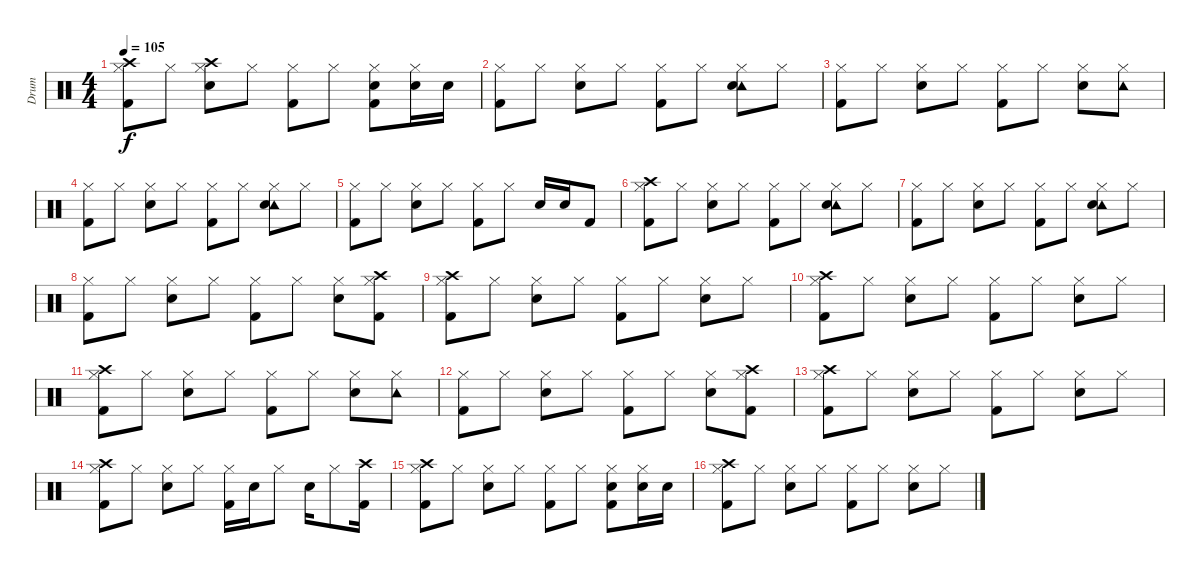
\track ("Drum" "Drum") {instrument percussion}
\staff {score}
\articulation defaults
\ts (4 4)
\tempo 105
\clef neutral
\ks c
("Crash high (hit)" "Hi-Hat (closed)" "Kick (hit) 2").8{dy f} "Hi-Hat (closed)".8 ("Crash high (hit)" "Electric Snare (hit)" "Hi-Hat (closed)").8 "Hi-Hat (closed)".8 ("Hi-Hat (closed)" "Kick (hit) 2").8 "Hi-Hat (closed)".8 ("Electric Snare (hit)" "Hi-Hat (closed)" "Kick (hit) 2").8 ("Electric Snare (hit)" "Hi-Hat (closed)").16 "Electric Snare (hit)".16 |
("Hi-Hat (closed)" "Kick (hit) 2").8 "Hi-Hat (closed)".8 ("Electric Snare (hit)" "Hi-Hat (closed)").8 "Hi-Hat (closed)".8 ("Hi-Hat (closed)" "Kick (hit) 2").8 "Hi-Hat (closed)".8 ("Tambourine (hit)" "Electric Snare (hit)" "Hi-Hat (closed)").8 "Hi-Hat (closed)".8 |
("Hi-Hat (closed)" "Kick (hit) 2").8 "Hi-Hat (closed)".8 ("Electric Snare (hit)" "Hi-Hat (closed)").8 "Hi-Hat (closed)".8 ("Hi-Hat (closed)" "Kick (hit) 2").8 "Hi-Hat (closed)".8 ("Electric Snare (hit)" "Hi-Hat (closed)").8 ("Tambourine (hit)" "Hi-Hat (closed)").8 |
("Hi-Hat (closed)" "Kick (hit) 2").8 "Hi-Hat (closed)".8 ("Electric Snare (hit)" "Hi-Hat (closed)").8 "Hi-Hat (closed)".8 ("Hi-Hat (closed)" "Kick (hit) 2").8 "Hi-Hat (closed)".8 ("Tambourine (hit)" "Electric Snare (hit)" "Hi-Hat (closed)").8 "Hi-Hat (closed)".8 |
("Hi-Hat (closed)" "Kick (hit) 2").8 "Hi-Hat (closed)".8 ("Electric Snare (hit)" "Hi-Hat (closed)").8 "Hi-Hat (closed)".8 ("Hi-Hat (closed)" "Kick (hit) 2").8 "Hi-Hat (closed)".8 "Electric Snare (hit)".16 "Electric Snare (hit)".16 "Kick (hit) 2".8 |
("Crash high (hit)" "Hi-Hat (closed)" "Kick (hit) 2").8 "Hi-Hat (closed)".8 ("Electric Snare (hit)" "Hi-Hat (closed)").8 "Hi-Hat (closed)".8 ("Hi-Hat (closed)" "Kick (hit) 2").8 "Hi-Hat (closed)".8 ("Tambourine (hit)" "Electric Snare (hit)" "Hi-Hat (closed)").8 "Hi-Hat (closed)".8 |
("Hi-Hat (closed)" "Kick (hit) 2").8 "Hi-Hat (closed)".8 ("Electric Snare (hit)" "Hi-Hat (closed)").8 "Hi-Hat (closed)".8 ("Hi-Hat (closed)" "Kick (hit) 2").8 "Hi-Hat (closed)".8 ("Tambourine (hit)" "Electric Snare (hit)" "Hi-Hat (closed)").8 "Hi-Hat (closed)".8 |
("Hi-Hat (closed)" "Kick (hit) 2").8 "Hi-Hat (closed)".8 ("Electric Snare (hit)" "Hi-Hat (closed)").8 "Hi-Hat (closed)".8 ("Hi-Hat (closed)" "Kick (hit) 2").8 "Hi-Hat (closed)".8 ("Electric Snare (hit)" "Hi-Hat (closed)").8 ("Crash high (hit)" "Hi-Hat (closed)" "Kick (hit) 2").8 |
("Crash high (hit)" "Hi-Hat (closed)" "Kick (hit) 2").8 "Hi-Hat (closed)".8 ("Electric Snare (hit)" "Hi-Hat (closed)").8 "Hi-Hat (closed)".8 ("Hi-Hat (closed)" "Kick (hit) 2").8 "Hi-Hat (closed)".8 ("Electric Snare (hit)" "Hi-Hat (closed)").8 "Hi-Hat (closed)".8 |
("Crash high (hit)" "Hi-Hat (closed)" "Kick (hit) 2").8 "Hi-Hat (closed)".8 ("Electric Snare (hit)" "Hi-Hat (closed)").8 "Hi-Hat (closed)".8 ("Hi-Hat (closed)" "Kick (hit) 2").8 "Hi-Hat (closed)".8 ("Electric Snare (hit)" "Hi-Hat (closed)").8 "Hi-Hat (closed)".8 |
("Crash high (hit)" "Hi-Hat (closed)" "Kick (hit) 2").8 "Hi-Hat (closed)".8 ("Electric Snare (hit)" "Hi-Hat (closed)").8 "Hi-Hat (closed)".8 ("Hi-Hat (closed)" "Kick (hit) 2").8 "Hi-Hat (closed)".8 ("Electric Snare (hit)" "Hi-Hat (closed)").8 ("Tambourine (hit)" "Hi-Hat (closed)").8 |
("Hi-Hat (closed)" "Kick (hit) 2").8 "Hi-Hat (closed)".8 ("Electric Snare (hit)" "Hi-Hat (closed)").8 "Hi-Hat (closed)".8 ("Hi-Hat (closed)" "Kick (hit) 2").8 "Hi-Hat (closed)".8 ("Electric Snare (hit)" "Hi-Hat (closed)").8 ("Crash high (hit)" "Hi-Hat (closed)" "Kick (hit) 2").8 |
("Crash high (hit)" "Hi-Hat (closed)" "Kick (hit) 2").8 "Hi-Hat (closed)".8 ("Electric Snare (hit)" "Hi-Hat (closed)").8 "Hi-Hat (closed)".8 ("Hi-Hat (closed)" "Kick (hit) 2").8 "Hi-Hat (closed)".8 ("Electric Snare (hit)" "Hi-Hat (closed)").8 "Hi-Hat (closed)".8 |
("Crash high (hit)" "Hi-Hat (closed)" "Kick (hit) 2").8 "Hi-Hat (closed)".8 ("Electric Snare (hit)" "Hi-Hat (closed)").8 "Hi-Hat (closed)".8 ("Hi-Hat (closed)" "Kick (hit) 2").16 "Electric Snare (hit)".16 "Hi-Hat (closed)".8 "Electric Snare (hit)".16 "Hi-Hat (closed)".8 ("Crash high (hit)" "Kick (hit) 2").16 |
("Crash high (hit)" "Hi-Hat (closed)" "Kick (hit) 2").8 "Hi-Hat (closed)".8 ("Electric Snare (hit)" "Hi-Hat (closed)").8 "Hi-Hat (closed)".8 ("Hi-Hat (closed)" "Kick (hit) 2").8 "Hi-Hat (closed)".8 ("Electric Snare (hit)" "Hi-Hat (closed)" "Kick (hit) 2").8 ("Electric Snare (hit)" "Hi-Hat (closed)").16 "Electric Snare (hit)".16 |
("Crash high (hit)" "Hi-Hat (closed)" "Kick (hit) 2").8 "Hi-Hat (closed)".8 ("Electric Snare (hit)" "Hi-Hat (closed)").8 "Hi-Hat (closed)".8 ("Hi-Hat (closed)" "Kick (hit) 2").8 "Hi-Hat (closed)".8 ("Electric Snare (hit)" "Hi-Hat (closed)").8 "Hi-Hat (closed)".8
